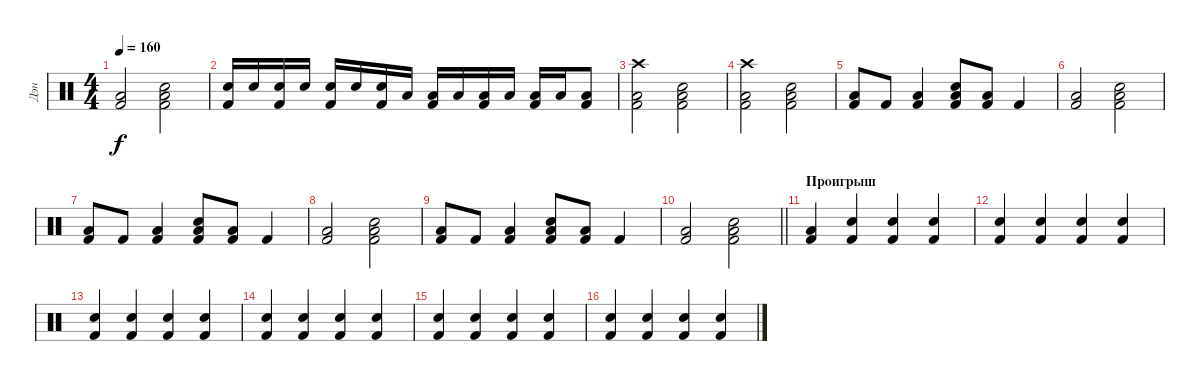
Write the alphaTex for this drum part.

\track ("Дэн" "Дэн") {instrument percussion}
\staff {score}
\articulation defaults
\ts (4 4)
\tempo 160
\clef neutral
\ks c
("Low Tom (hit)" "Kick (hit) 2").2{dy f} ("Electric Snare (hit)" "Low Tom (hit)" "Kick (hit) 2").2 |
("Electric Snare (hit)" "Kick (hit) 2").16 "Electric Snare (hit)".16 ("Electric Snare (hit)" "Kick (hit) 2").16 "Electric Snare (hit)".16 ("Electric Snare (hit)" "Kick (hit) 2").16 "Electric Snare (hit)".16 ("Electric Snare (hit)" "Kick (hit) 2").16 "Low Tom (hit)".16 ("Low Tom (hit)" "Kick (hit) 2").16 "Low Tom (hit)".16 ("Low Tom (hit)" "Kick (hit) 2").16 "Low Tom (hit)".16 ("Low Tom (hit)" "Kick (hit) 2").16 "Low Tom (hit)".16 ("Low Tom (hit)" "Kick (hit) 2").8 |
("Crash high (hit)" "Low Tom (hit)" "Kick (hit) 2").2{volume 13} ("Electric Snare (hit)" "Low Tom (hit)" "Kick (hit) 2").2 |
("Crash high (hit)" "Low Tom (hit)" "Kick (hit) 2").2 ("Electric Snare (hit)" "Low Tom (hit)" "Kick (hit) 2").2 |
("Low Tom (hit)" "Kick (hit) 2").8 "Kick (hit) 2".8 ("Low Tom (hit)" "Kick (hit) 2").4 ("Electric Snare (hit)" "Low Tom (hit)" "Kick (hit) 2").8 ("Low Tom (hit)" "Kick (hit) 2").8 "Kick (hit) 2".4 |
("Low Tom (hit)" "Kick (hit) 2").2 ("Electric Snare (hit)" "Low Tom (hit)" "Kick (hit) 2").2 |
("Low Tom (hit)" "Kick (hit) 2").8 "Kick (hit) 2".8 ("Low Tom (hit)" "Kick (hit) 2").4 ("Electric Snare (hit)" "Low Tom (hit)" "Kick (hit) 2").8 ("Low Tom (hit)" "Kick (hit) 2").8 "Kick (hit) 2".4 |
("Low Tom (hit)" "Kick (hit) 2").2 ("Electric Snare (hit)" "Low Tom (hit)" "Kick (hit) 2").2 |
("Low Tom (hit)" "Kick (hit) 2").8 "Kick (hit) 2".8 ("Low Tom (hit)" "Kick (hit) 2").4 ("Electric Snare (hit)" "Low Tom (hit)" "Kick (hit) 2").8 ("Low Tom (hit)" "Kick (hit) 2").8 "Kick (hit) 2".4 |
\barLineRight lightlight
("Low Tom (hit)" "Kick (hit) 2").2 ("Electric Snare (hit)" "Low Tom (hit)" "Kick (hit) 2").2 |
\section ("" "Проигрыш")
("Low Tom (hit)" "Kick (hit) 2").4 ("Electric Snare (hit)" "Kick (hit) 2").4 ("Electric Snare (hit)" "Kick (hit) 2").4 ("Electric Snare (hit)" "Kick (hit) 2").4 |
("Electric Snare (hit)" "Kick (hit) 2").4 ("Electric Snare (hit)" "Kick (hit) 2").4 ("Electric Snare (hit)" "Kick (hit) 2").4 ("Electric Snare (hit)" "Kick (hit) 2").4 |
("Electric Snare (hit)" "Kick (hit) 2").4 ("Electric Snare (hit)" "Kick (hit) 2").4 ("Electric Snare (hit)" "Kick (hit) 2").4 ("Electric Snare (hit)" "Kick (hit) 2").4 |
("Electric Snare (hit)" "Kick (hit) 2").4 ("Electric Snare (hit)" "Kick (hit) 2").4 ("Electric Snare (hit)" "Kick (hit) 2").4 ("Electric Snare (hit)" "Kick (hit) 2").4 |
("Electric Snare (hit)" "Kick (hit) 2").4 ("Electric Snare (hit)" "Kick (hit) 2").4 ("Electric Snare (hit)" "Kick (hit) 2").4 ("Electric Snare (hit)" "Kick (hit) 2").4 |
("Electric Snare (hit)" "Kick (hit) 2").4 ("Electric Snare (hit)" "Kick (hit) 2").4 ("Electric Snare (hit)" "Kick (hit) 2").4 ("Electric Snare (hit)" "Kick (hit) 2").4
